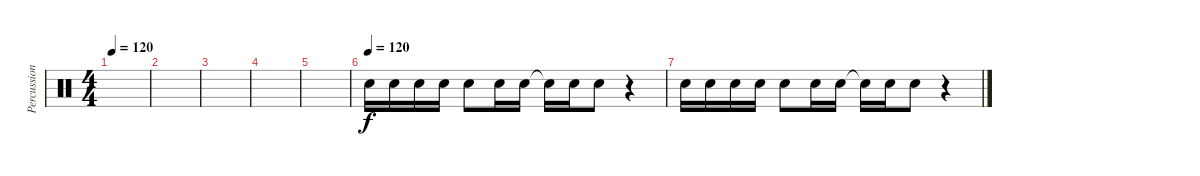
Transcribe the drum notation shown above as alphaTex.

\track ("Percussion 2" "Percussion") {instrument percussion}
\staff {score}
\articulation defaults
\ts (4 4)
\tempo 120
\clef neutral
\ks c
|
|
|
|
|
\tempo (120)
"Electric Snare (hit)".16{volume 15} "Electric Snare (hit)".16 "Electric Snare (hit)".16 "Electric Snare (hit)".16 "Electric Snare (hit)".8 "Electric Snare (hit)".16 "Electric Snare (hit)".16 "Electric Snare (hit)"{t}.16 "Electric Snare (hit)".16 "Electric Snare (hit)".8 r.4 |
"Electric Snare (hit)".16{volume 15} "Electric Snare (hit)".16 "Electric Snare (hit)".16 "Electric Snare (hit)".16 "Electric Snare (hit)".8 "Electric Snare (hit)".16 "Electric Snare (hit)".16 "Electric Snare (hit)"{t}.16 "Electric Snare (hit)".16 "Electric Snare (hit)".8 r.4
